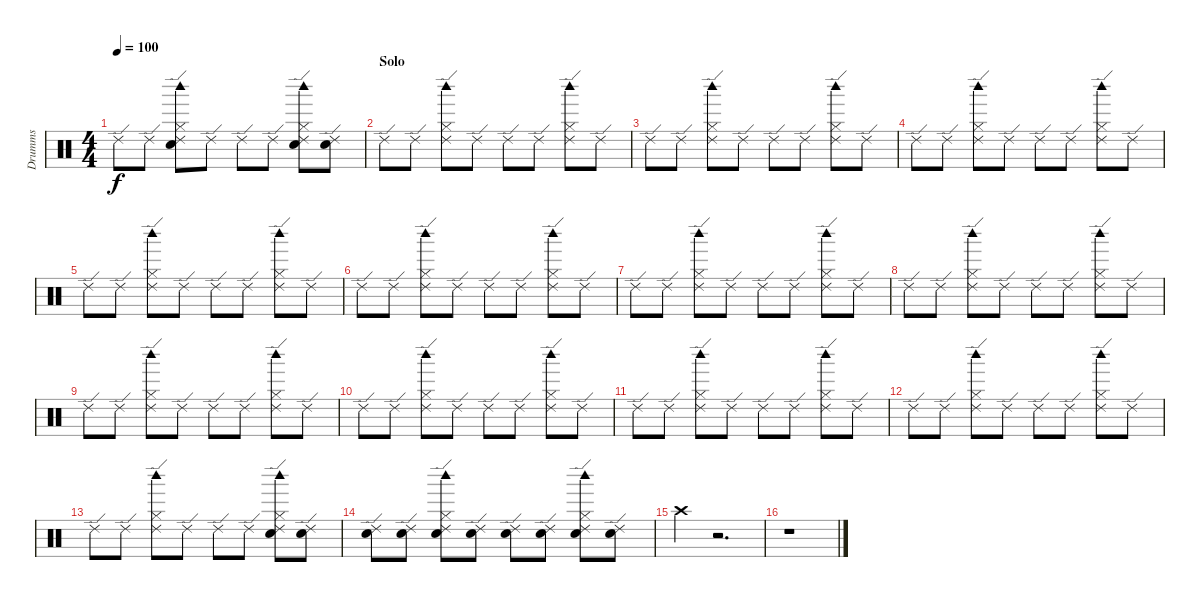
\track ("Drumms" "Drumms") {instrument percussion}
\staff {score}
\articulation defaults
\ts (4 4)
\tempo 100
\clef neutral
\ks c "Ride (edge) 2".8{dy f} "Ride (edge) 2".8
("Electric Snare (hit)" "Ride (edge) 2" "Woodblock high (hit)" "Hi-Hat (closed)").8 "Ride (edge) 2".8 "Ride (edge) 2".8 "Ride (edge) 2".8 ("Electric Snare (hit)" "Ride (edge) 2" "Hi-Hat (closed)" "Woodblock high (hit)").8 ("Ride (edge) 2" "Electric Snare (hit)").8 |
\section ("" "Solo")
"Ride (edge) 2".8 "Ride (edge) 2".8 ("Ride (edge) 2" "Hi-Hat (closed)" "Woodblock high (hit)").8 "Ride (edge) 2".8 "Ride (edge) 2".8 "Ride (edge) 2".8 ("Ride (edge) 2" "Hi-Hat (closed)" "Woodblock high (hit)").8 "Ride (edge) 2".8 |
"Ride (edge) 2".8 "Ride (edge) 2".8 ("Ride (edge) 2" "Hi-Hat (closed)" "Woodblock high (hit)").8 "Ride (edge) 2".8 "Ride (edge) 2".8 "Ride (edge) 2".8 ("Ride (edge) 2" "Hi-Hat (closed)" "Woodblock high (hit)").8 "Ride (edge) 2".8 |
"Ride (edge) 2".8 "Ride (edge) 2".8 ("Ride (edge) 2" "Hi-Hat (closed)" "Woodblock high (hit)").8 "Ride (edge) 2".8 "Ride (edge) 2".8 "Ride (edge) 2".8 ("Ride (edge) 2" "Hi-Hat (closed)" "Woodblock high (hit)").8 "Ride (edge) 2".8 |
"Ride (edge) 2".8 "Ride (edge) 2".8 ("Ride (edge) 2" "Hi-Hat (closed)" "Woodblock high (hit)").8 "Ride (edge) 2".8 "Ride (edge) 2".8 "Ride (edge) 2".8 ("Ride (edge) 2" "Hi-Hat (closed)" "Woodblock high (hit)").8 "Ride (edge) 2".8 |
"Ride (edge) 2".8 "Ride (edge) 2".8 ("Ride (edge) 2" "Hi-Hat (closed)" "Woodblock high (hit)").8 "Ride (edge) 2".8 "Ride (edge) 2".8 "Ride (edge) 2".8 ("Ride (edge) 2" "Hi-Hat (closed)" "Woodblock high (hit)").8 "Ride (edge) 2".8 |
"Ride (edge) 2".8 "Ride (edge) 2".8 ("Ride (edge) 2" "Hi-Hat (closed)" "Woodblock high (hit)").8 "Ride (edge) 2".8 "Ride (edge) 2".8 "Ride (edge) 2".8 ("Ride (edge) 2" "Hi-Hat (closed)" "Woodblock high (hit)").8 "Ride (edge) 2".8 |
"Ride (edge) 2".8 "Ride (edge) 2".8 ("Ride (edge) 2" "Hi-Hat (closed)" "Woodblock high (hit)").8 "Ride (edge) 2".8 "Ride (edge) 2".8 "Ride (edge) 2".8 ("Ride (edge) 2" "Hi-Hat (closed)" "Woodblock high (hit)").8 "Ride (edge) 2".8 |
"Ride (edge) 2".8 "Ride (edge) 2".8 ("Ride (edge) 2" "Hi-Hat (closed)" "Woodblock high (hit)").8 "Ride (edge) 2".8 "Ride (edge) 2".8 "Ride (edge) 2".8 ("Ride (edge) 2" "Hi-Hat (closed)" "Woodblock high (hit)").8 "Ride (edge) 2".8 |
"Ride (edge) 2".8 "Ride (edge) 2".8 ("Ride (edge) 2" "Hi-Hat (closed)" "Woodblock high (hit)").8 "Ride (edge) 2".8 "Ride (edge) 2".8 "Ride (edge) 2".8 ("Ride (edge) 2" "Hi-Hat (closed)" "Woodblock high (hit)").8 "Ride (edge) 2".8 |
"Ride (edge) 2".8 "Ride (edge) 2".8 ("Ride (edge) 2" "Hi-Hat (closed)" "Woodblock high (hit)").8 "Ride (edge) 2".8 "Ride (edge) 2".8 "Ride (edge) 2".8 ("Ride (edge) 2" "Hi-Hat (closed)" "Woodblock high (hit)").8 "Ride (edge) 2".8 |
"Ride (edge) 2".8 "Ride (edge) 2".8 ("Ride (edge) 2" "Hi-Hat (closed)" "Woodblock high (hit)").8 "Ride (edge) 2".8 "Ride (edge) 2".8 "Ride (edge) 2".8 ("Ride (edge) 2" "Hi-Hat (closed)" "Woodblock high (hit)").8 "Ride (edge) 2".8 |
"Ride (edge) 2".8 "Ride (edge) 2".8 ("Ride (edge) 2" "Hi-Hat (closed)" "Woodblock high (hit)").8 "Ride (edge) 2".8 "Ride (edge) 2".8 "Ride (edge) 2".8 ("Ride (edge) 2" "Hi-Hat (closed)" "Woodblock high (hit)" "Snare (hit) 2").8 ("Ride (edge) 2" "Electric Snare (hit)").8 |
("Snare (hit) 2" "Ride (edge) 2").8 ("Electric Snare (hit)" "Ride (edge) 2").8 ("Snare (hit) 2" "Ride (edge) 2" "Hi-Hat (closed)" "Woodblock high (hit)").8 ("Electric Snare (hit)" "Ride (edge) 2").8 ("Electric Snare (hit)" "Ride (edge) 2").8 ("Snare (hit) 2" "Ride (edge) 2").8 ("Snare (hit) 2" "Ride (edge) 2" "Hi-Hat (closed)" "Woodblock high (hit)").8 ("Snare (hit) 2" "Ride (edge) 2").8 |
"Crash high (hit)".4 r.2{d} |
r.1
